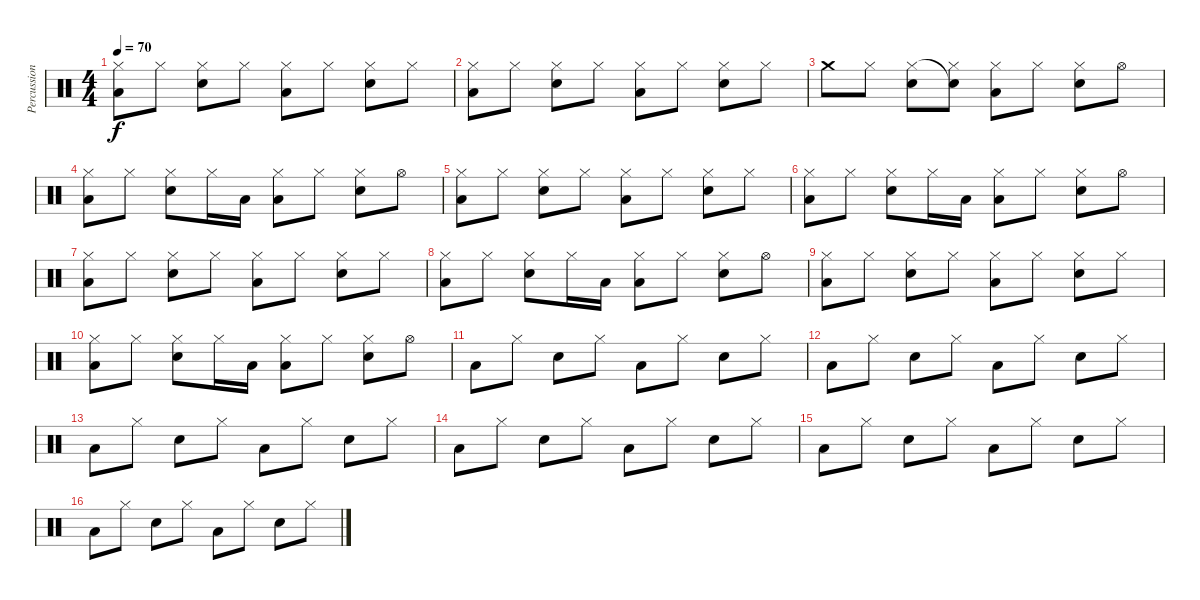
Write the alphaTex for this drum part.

\track ("Percussion" "Percussion") {instrument percussion}
\staff {score}
\articulation defaults
\ts (4 4)
\tempo 70
\clef neutral
\ks c
("Low Floor Tom (hit)" "Hi-Hat (closed)").8{dy f} "Hi-Hat (closed)".8 ("Snare (hit) 2" "Hi-Hat (closed)").8 "Hi-Hat (closed)".8 ("Low Floor Tom (hit)" "Hi-Hat (closed)").8 "Hi-Hat (closed)".8 ("Snare (hit) 2" "Hi-Hat (closed)").8 "Hi-Hat (closed)".8 |
("Low Floor Tom (hit)" "Hi-Hat (closed)").8 "Hi-Hat (closed)".8 ("Snare (hit) 2" "Hi-Hat (closed)").8 "Hi-Hat (closed)".8 ("Low Floor Tom (hit)" "Hi-Hat (closed)").8 "Hi-Hat (closed)".8 ("Snare (hit) 2" "Hi-Hat (closed)").8 "Hi-Hat (closed)".8 |
"Crash medium (hit)".8 "Hi-Hat (closed)".8 ("Hi-Hat (closed)" "Snare (hit) 2").8 ("Snare (hit)"{t} "Hi-Hat (closed)").8 ("Hi-Hat (closed)" "Low Floor Tom (hit)").8 "Hi-Hat (closed)".8 ("Hi-Hat (closed)" "Snare (hit) 2").8 "Hi-Hat (open)".8 |
("Low Floor Tom (hit)" "Hi-Hat (closed)").8 "Hi-Hat (closed)".8 ("Snare (hit) 2" "Hi-Hat (closed)").8 "Hi-Hat (closed)".16 "Low Floor Tom (hit)".16 ("Low Floor Tom (hit)" "Hi-Hat (closed)").8 "Hi-Hat (closed)".8 ("Snare (hit) 2" "Hi-Hat (closed)").8 "Hi-Hat (open)".8 |
("Low Floor Tom (hit)" "Hi-Hat (closed)").8 "Hi-Hat (closed)".8 ("Snare (hit) 2" "Hi-Hat (closed)").8 "Hi-Hat (closed)".8 ("Low Floor Tom (hit)" "Hi-Hat (closed)").8 "Hi-Hat (closed)".8 ("Snare (hit) 2" "Hi-Hat (closed)").8 "Hi-Hat (closed)".8 |
("Low Floor Tom (hit)" "Hi-Hat (closed)").8 "Hi-Hat (closed)".8 ("Snare (hit) 2" "Hi-Hat (closed)").8 "Hi-Hat (closed)".16 "Low Floor Tom (hit)".16 ("Low Floor Tom (hit)" "Hi-Hat (closed)").8 "Hi-Hat (closed)".8 ("Snare (hit) 2" "Hi-Hat (closed)").8 "Hi-Hat (open)".8 |
("Low Floor Tom (hit)" "Hi-Hat (closed)").8 "Hi-Hat (closed)".8 ("Snare (hit) 2" "Hi-Hat (closed)").8 "Hi-Hat (closed)".8 ("Low Floor Tom (hit)" "Hi-Hat (closed)").8 "Hi-Hat (closed)".8 ("Snare (hit) 2" "Hi-Hat (closed)").8 "Hi-Hat (closed)".8 |
("Low Floor Tom (hit)" "Hi-Hat (closed)").8 "Hi-Hat (closed)".8 ("Snare (hit) 2" "Hi-Hat (closed)").8 "Hi-Hat (closed)".16 "Low Floor Tom (hit)".16 ("Low Floor Tom (hit)" "Hi-Hat (closed)").8 "Hi-Hat (closed)".8 ("Snare (hit) 2" "Hi-Hat (closed)").8 "Hi-Hat (open)".8 |
("Low Floor Tom (hit)" "Hi-Hat (closed)").8 "Hi-Hat (closed)".8 ("Snare (hit) 2" "Hi-Hat (closed)").8 "Hi-Hat (closed)".8 ("Low Floor Tom (hit)" "Hi-Hat (closed)").8 "Hi-Hat (closed)".8 ("Snare (hit) 2" "Hi-Hat (closed)").8 "Hi-Hat (closed)".8 |
("Low Floor Tom (hit)" "Hi-Hat (closed)").8 "Hi-Hat (closed)".8 ("Snare (hit) 2" "Hi-Hat (closed)").8 "Hi-Hat (closed)".16 "Low Floor Tom (hit)".16 ("Low Floor Tom (hit)" "Hi-Hat (closed)").8 "Hi-Hat (closed)".8 ("Snare (hit) 2" "Hi-Hat (closed)").8 "Hi-Hat (open)".8 |
"Low Floor Tom (hit)".8 "Hi-Hat (closed)".8 "Snare (hit) 2".8 "Hi-Hat (closed)".8 "Low Floor Tom (hit)".8 "Hi-Hat (closed)".8 "Snare (hit) 2".8 "Hi-Hat (closed)".8 |
"Low Floor Tom (hit)".8 "Hi-Hat (closed)".8 "Snare (hit) 2".8 "Hi-Hat (closed)".8 "Low Floor Tom (hit)".8 "Hi-Hat (closed)".8 "Snare (hit) 2".8 "Hi-Hat (closed)".8 |
"Low Floor Tom (hit)".8 "Hi-Hat (closed)".8 "Snare (hit) 2".8 "Hi-Hat (closed)".8 "Low Floor Tom (hit)".8 "Hi-Hat (closed)".8 "Snare (hit) 2".8 "Hi-Hat (closed)".8 |
"Low Floor Tom (hit)".8 "Hi-Hat (closed)".8 "Snare (hit) 2".8 "Hi-Hat (closed)".8 "Low Floor Tom (hit)".8 "Hi-Hat (closed)".8 "Snare (hit) 2".8 "Hi-Hat (closed)".8 |
"Low Floor Tom (hit)".8 "Hi-Hat (closed)".8 "Snare (hit) 2".8 "Hi-Hat (closed)".8 "Low Floor Tom (hit)".8 "Hi-Hat (closed)".8 "Snare (hit) 2".8 "Hi-Hat (closed)".8 |
"Low Floor Tom (hit)".8 "Hi-Hat (closed)".8 "Snare (hit) 2".8 "Hi-Hat (closed)".8 "Low Floor Tom (hit)".8 "Hi-Hat (closed)".8 "Snare (hit) 2".8 "Hi-Hat (closed)".8
